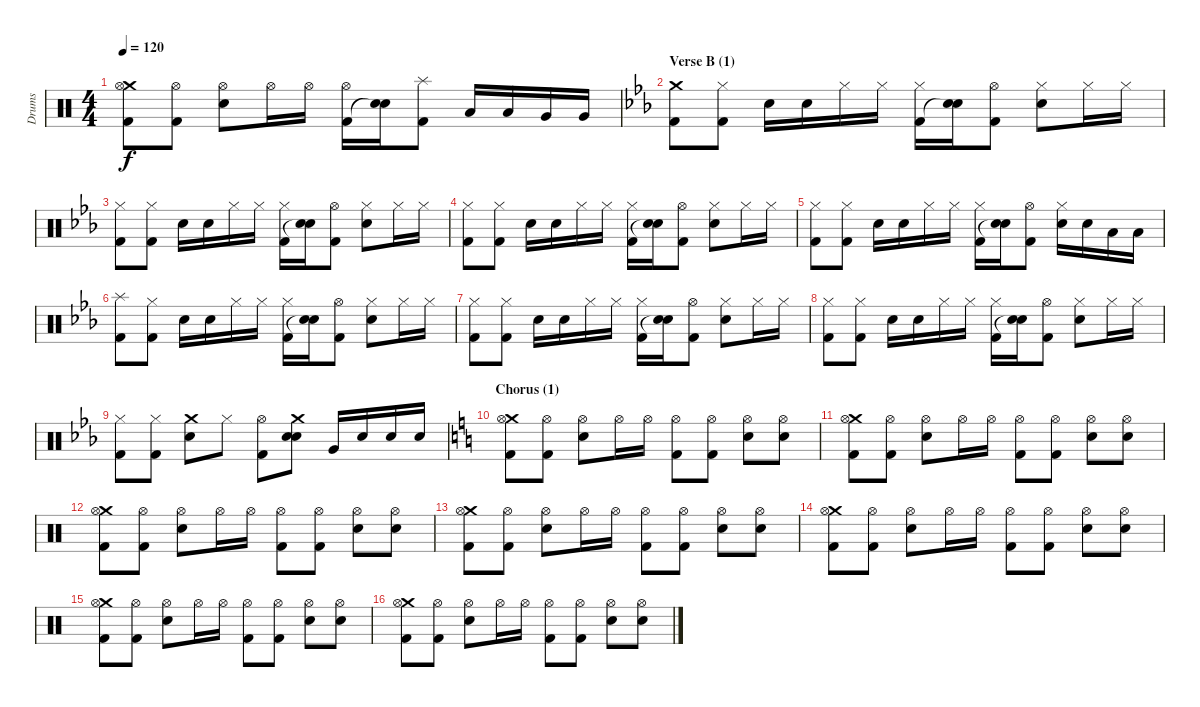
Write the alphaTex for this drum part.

\track ("Drums" "Drums") {instrument percussion}
\staff {score}
\articulation defaults
\ts (4 4)
\tempo 120
\clef neutral
\ks c
("Crash medium (hit)" "Hi-Hat (open)" "Kick (hit) 2").8{dy f} ("Hi-Hat (open)" "Kick (hit) 2").8 ("Hi-Hat (open)" "Electric Snare (hit)").8 "Hi-Hat (open)".16 "Hi-Hat (open)".16 ("Hi-Hat (open)" "Kick (hit) 2").16 ("Electric Snare (hit)" "Snare (hit)"{t}).16 ("Splash (hit)" "Kick (hit) 2").8 "Low Tom (hit)".16 "Low Tom (hit)".16 "Very Low Tom (hit)".16 "Very Low Tom (hit)".16 |
\section ("" "Verse B (1)")
\ks eb
("Crash medium (hit)" "Kick (hit) 2").8 ("Hi-Hat (closed)" "Kick (hit) 2").8 "Electric Snare (hit)".16 "Electric Snare (hit)".16 "Hi-Hat (closed)".16 "Hi-Hat (closed)".16 ("Hi-Hat (closed)" "Kick (hit) 2").16 ("Electric Snare (hit)" "Snare (hit)"{t}).16 ("Hi-Hat (open)" "Kick (hit) 2").8 ("Hi-Hat (closed)" "Electric Snare (hit)").8 "Hi-Hat (closed)".16 "Hi-Hat (closed)".16 |
("Hi-Hat (closed)" "Kick (hit) 2").8 ("Hi-Hat (closed)" "Kick (hit) 2").8 "Electric Snare (hit)".16 "Electric Snare (hit)".16 "Hi-Hat (closed)".16 "Hi-Hat (closed)".16 ("Hi-Hat (closed)" "Kick (hit) 2").16 ("Electric Snare (hit)" "Snare (hit)"{t}).16 ("Hi-Hat (open)" "Kick (hit) 2").8 ("Hi-Hat (closed)" "Electric Snare (hit)").8 "Hi-Hat (closed)".16 "Hi-Hat (closed)".16 |
("Hi-Hat (closed)" "Kick (hit) 2").8 ("Hi-Hat (closed)" "Kick (hit) 2").8 "Electric Snare (hit)".16 "Electric Snare (hit)".16 "Hi-Hat (closed)".16 "Hi-Hat (closed)".16 ("Hi-Hat (closed)" "Kick (hit) 2").16 ("Electric Snare (hit)" "Snare (hit)"{t}).16 ("Hi-Hat (open)" "Kick (hit) 2").8 ("Hi-Hat (closed)" "Electric Snare (hit)").8 "Hi-Hat (closed)".16 "Hi-Hat (closed)".16 |
("Hi-Hat (closed)" "Kick (hit) 2").8 ("Hi-Hat (closed)" "Kick (hit) 2").8 "Electric Snare (hit)".16 "Electric Snare (hit)".16 "Hi-Hat (closed)".16 "Hi-Hat (closed)".16 ("Hi-Hat (closed)" "Kick (hit) 2").16 ("Electric Snare (hit)" "Snare (hit)"{t}).16 ("Hi-Hat (open)" "Kick (hit) 2").8 ("Hi-Hat (closed)" "Electric Snare (hit)").16 "Electric Snare (hit)".16 "Low Tom (hit)".16 "Low Tom (hit)".16 |
("Splash (hit)" "Kick (hit) 2").8 ("Hi-Hat (closed)" "Kick (hit) 2").8 "Electric Snare (hit)".16 "Electric Snare (hit)".16 "Hi-Hat (closed)".16 "Hi-Hat (closed)".16 ("Hi-Hat (closed)" "Kick (hit) 2").16 ("Electric Snare (hit)" "Snare (hit)"{t}).16 ("Hi-Hat (open)" "Kick (hit) 2").8 ("Hi-Hat (closed)" "Electric Snare (hit)").8 "Hi-Hat (closed)".16 "Hi-Hat (closed)".16 |
("Hi-Hat (closed)" "Kick (hit) 2").8 ("Hi-Hat (closed)" "Kick (hit) 2").8 "Electric Snare (hit)".16 "Electric Snare (hit)".16 "Hi-Hat (closed)".16 "Hi-Hat (closed)".16 ("Hi-Hat (closed)" "Kick (hit) 2").16 ("Electric Snare (hit)" "Snare (hit)"{t}).16 ("Hi-Hat (open)" "Kick (hit) 2").8 ("Hi-Hat (closed)" "Electric Snare (hit)").8 "Hi-Hat (closed)".16 "Hi-Hat (closed)".16 |
("Hi-Hat (closed)" "Kick (hit) 2").8 ("Hi-Hat (closed)" "Kick (hit) 2").8 "Electric Snare (hit)".16 "Electric Snare (hit)".16 "Hi-Hat (closed)".16 "Hi-Hat (closed)".16 ("Hi-Hat (closed)" "Kick (hit) 2").16 ("Electric Snare (hit)" "Snare (hit)"{t}).16 ("Hi-Hat (open)" "Kick (hit) 2").8 ("Hi-Hat (closed)" "Electric Snare (hit)").8 "Hi-Hat (closed)".16 "Hi-Hat (closed)".16 |
("Hi-Hat (closed)" "Kick (hit) 2").8 ("Hi-Hat (closed)" "Kick (hit) 2").8 ("Crash medium (hit)" "Electric Snare (hit)").8 "Hi-Hat (closed)".8 ("Hi-Hat (open)" "Kick (hit) 2").8 ("Crash medium (hit)" "Electric Snare (hit)" "Snare (hit)").8 "Very Low Tom (hit)".16 "Electric Snare (hit)".16 "Electric Snare (hit)".16 "Electric Snare (hit)".16 |
\section ("" "Chorus (1)")
\ks c
("Crash medium (hit)" "Hi-Hat (open)" "Kick (hit) 2").8 ("Hi-Hat (open)" "Kick (hit) 2").8 ("Hi-Hat (open)" "Electric Snare (hit)").8 "Hi-Hat (open)".16 "Hi-Hat (open)".16 ("Hi-Hat (open)" "Kick (hit) 2").8 ("Hi-Hat (open)" "Kick (hit) 2").8 ("Hi-Hat (open)" "Electric Snare (hit)").8 ("Hi-Hat (open)" "Electric Snare (hit)").8 |
("Crash medium (hit)" "Hi-Hat (open)" "Kick (hit) 2").8 ("Hi-Hat (open)" "Kick (hit) 2").8 ("Hi-Hat (open)" "Electric Snare (hit)").8 "Hi-Hat (open)".16 "Hi-Hat (open)".16 ("Hi-Hat (open)" "Kick (hit) 2").8 ("Hi-Hat (open)" "Kick (hit) 2").8 ("Hi-Hat (open)" "Electric Snare (hit)").8 ("Hi-Hat (open)" "Electric Snare (hit)").8 |
("Crash medium (hit)" "Hi-Hat (open)" "Kick (hit) 2").8 ("Hi-Hat (open)" "Kick (hit) 2").8 ("Hi-Hat (open)" "Electric Snare (hit)").8 "Hi-Hat (open)".16 "Hi-Hat (open)".16 ("Hi-Hat (open)" "Kick (hit) 2").8 ("Hi-Hat (open)" "Kick (hit) 2").8 ("Hi-Hat (open)" "Electric Snare (hit)").8 ("Hi-Hat (open)" "Electric Snare (hit)").8 |
("Crash medium (hit)" "Hi-Hat (open)" "Kick (hit) 2").8 ("Hi-Hat (open)" "Kick (hit) 2").8 ("Hi-Hat (open)" "Electric Snare (hit)").8 "Hi-Hat (open)".16 "Hi-Hat (open)".16 ("Hi-Hat (open)" "Kick (hit) 2").8 ("Hi-Hat (open)" "Kick (hit) 2").8 ("Hi-Hat (open)" "Electric Snare (hit)").8 ("Hi-Hat (open)" "Electric Snare (hit)").8 |
("Crash medium (hit)" "Hi-Hat (open)" "Kick (hit) 2").8 ("Hi-Hat (open)" "Kick (hit) 2").8 ("Hi-Hat (open)" "Electric Snare (hit)").8 "Hi-Hat (open)".16 "Hi-Hat (open)".16 ("Hi-Hat (open)" "Kick (hit) 2").8 ("Hi-Hat (open)" "Kick (hit) 2").8 ("Hi-Hat (open)" "Electric Snare (hit)").8 ("Hi-Hat (open)" "Electric Snare (hit)").8 |
("Crash medium (hit)" "Hi-Hat (open)" "Kick (hit) 2").8 ("Hi-Hat (open)" "Kick (hit) 2").8 ("Hi-Hat (open)" "Electric Snare (hit)").8 "Hi-Hat (open)".16 "Hi-Hat (open)".16 ("Hi-Hat (open)" "Kick (hit) 2").8 ("Hi-Hat (open)" "Kick (hit) 2").8 ("Hi-Hat (open)" "Electric Snare (hit)").8 ("Hi-Hat (open)" "Electric Snare (hit)").8 |
("Crash medium (hit)" "Hi-Hat (open)" "Kick (hit) 2").8 ("Hi-Hat (open)" "Kick (hit) 2").8 ("Hi-Hat (open)" "Electric Snare (hit)").8 "Hi-Hat (open)".16 "Hi-Hat (open)".16 ("Hi-Hat (open)" "Kick (hit) 2").8 ("Hi-Hat (open)" "Kick (hit) 2").8 ("Hi-Hat (open)" "Electric Snare (hit)").8 ("Hi-Hat (open)" "Electric Snare (hit)").8
